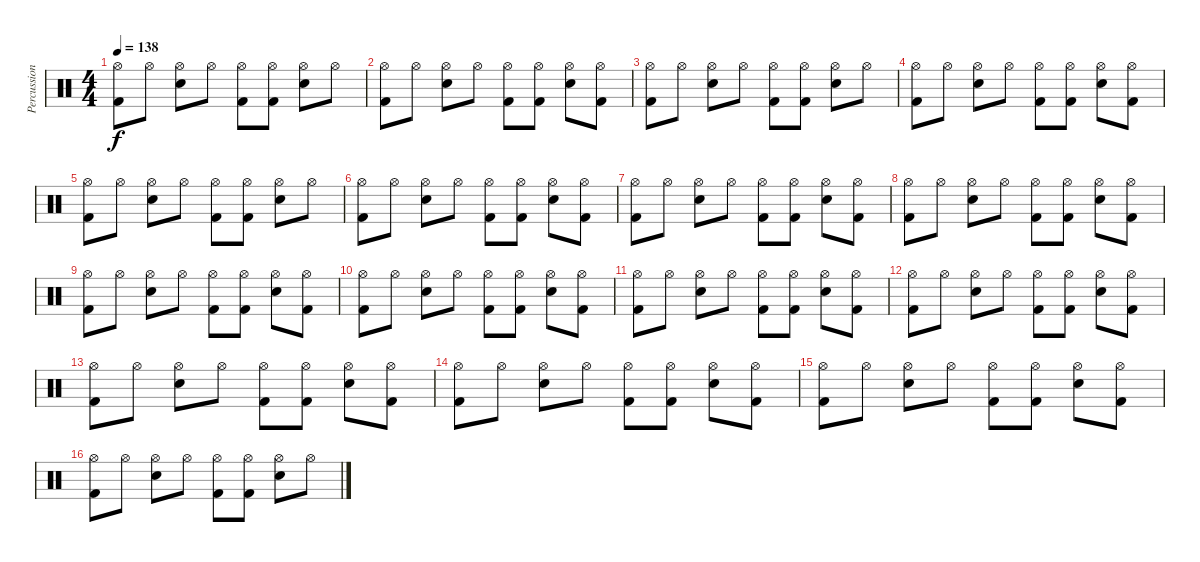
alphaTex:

\track ("Percussion" "Percussion") {instrument percussion}
\staff {score}
\articulation defaults
\ts (4 4)
\tempo 138
\clef neutral
\ks c
("Hi-Hat (open)" "Kick (hit) 2").8{dy f} "Hi-Hat (open)".8 ("Hi-Hat (open)" "Snare (hit) 2").8 "Hi-Hat (open)".8 ("Hi-Hat (open)" "Kick (hit) 2").8 ("Hi-Hat (open)" "Kick (hit) 2").8 ("Hi-Hat (open)" "Snare (hit) 2").8 "Hi-Hat (open)".8 |
("Hi-Hat (open)" "Kick (hit) 2").8 "Hi-Hat (open)".8 ("Hi-Hat (open)" "Snare (hit) 2").8 "Hi-Hat (open)".8 ("Hi-Hat (open)" "Kick (hit) 2").8 ("Hi-Hat (open)" "Kick (hit) 2").8 ("Hi-Hat (open)" "Snare (hit) 2").8 ("Hi-Hat (open)" "Kick (hit) 2").8 |
("Hi-Hat (open)" "Kick (hit) 2").8 "Hi-Hat (open)".8 ("Hi-Hat (open)" "Snare (hit) 2").8 "Hi-Hat (open)".8 ("Hi-Hat (open)" "Kick (hit) 2").8 ("Hi-Hat (open)" "Kick (hit) 2").8 ("Hi-Hat (open)" "Snare (hit) 2").8 "Hi-Hat (open)".8 |
("Hi-Hat (open)" "Kick (hit) 2").8 "Hi-Hat (open)".8 ("Hi-Hat (open)" "Snare (hit) 2").8 "Hi-Hat (open)".8 ("Hi-Hat (open)" "Kick (hit) 2").8 ("Hi-Hat (open)" "Kick (hit) 2").8 ("Hi-Hat (open)" "Snare (hit) 2").8 ("Hi-Hat (open)" "Kick (hit) 2").8 |
("Hi-Hat (open)" "Kick (hit) 2").8 "Hi-Hat (open)".8 ("Hi-Hat (open)" "Snare (hit) 2").8 "Hi-Hat (open)".8 ("Hi-Hat (open)" "Kick (hit) 2").8 ("Hi-Hat (open)" "Kick (hit) 2").8 ("Hi-Hat (open)" "Snare (hit) 2").8 "Hi-Hat (open)".8 |
("Hi-Hat (open)" "Kick (hit) 2").8 "Hi-Hat (open)".8 ("Hi-Hat (open)" "Snare (hit) 2").8 "Hi-Hat (open)".8 ("Hi-Hat (open)" "Kick (hit) 2").8 ("Hi-Hat (open)" "Kick (hit) 2").8 ("Hi-Hat (open)" "Snare (hit) 2").8 ("Hi-Hat (open)" "Kick (hit) 2").8 |
("Hi-Hat (open)" "Kick (hit) 2").8 "Hi-Hat (open)".8 ("Hi-Hat (open)" "Snare (hit) 2").8 "Hi-Hat (open)".8 ("Hi-Hat (open)" "Kick (hit) 2").8 ("Hi-Hat (open)" "Kick (hit) 2").8 ("Hi-Hat (open)" "Snare (hit) 2").8 ("Hi-Hat (open)" "Kick (hit) 2").8 |
("Hi-Hat (open)" "Kick (hit) 2").8 "Hi-Hat (open)".8 ("Hi-Hat (open)" "Snare (hit) 2").8 "Hi-Hat (open)".8 ("Hi-Hat (open)" "Kick (hit) 2").8 ("Hi-Hat (open)" "Kick (hit) 2").8 ("Hi-Hat (open)" "Snare (hit) 2").8 ("Hi-Hat (open)" "Kick (hit) 2").8 |
("Hi-Hat (open)" "Kick (hit) 2").8 "Hi-Hat (open)".8 ("Hi-Hat (open)" "Snare (hit) 2").8 "Hi-Hat (open)".8 ("Hi-Hat (open)" "Kick (hit) 2").8 ("Hi-Hat (open)" "Kick (hit) 2").8 ("Hi-Hat (open)" "Snare (hit) 2").8 ("Hi-Hat (open)" "Kick (hit) 2").8 |
("Hi-Hat (open)" "Kick (hit) 2").8 "Hi-Hat (open)".8 ("Hi-Hat (open)" "Snare (hit) 2").8 "Hi-Hat (open)".8 ("Hi-Hat (open)" "Kick (hit) 2").8 ("Hi-Hat (open)" "Kick (hit) 2").8 ("Hi-Hat (open)" "Snare (hit) 2").8 ("Hi-Hat (open)" "Kick (hit) 2").8 |
("Hi-Hat (open)" "Kick (hit) 2").8 "Hi-Hat (open)".8 ("Hi-Hat (open)" "Snare (hit) 2").8 "Hi-Hat (open)".8 ("Hi-Hat (open)" "Kick (hit) 2").8 ("Hi-Hat (open)" "Kick (hit) 2").8 ("Hi-Hat (open)" "Snare (hit) 2").8 ("Hi-Hat (open)" "Kick (hit) 2").8 |
("Hi-Hat (open)" "Kick (hit) 2").8 "Hi-Hat (open)".8 ("Hi-Hat (open)" "Snare (hit) 2").8 "Hi-Hat (open)".8 ("Hi-Hat (open)" "Kick (hit) 2").8 ("Hi-Hat (open)" "Kick (hit) 2").8 ("Hi-Hat (open)" "Snare (hit) 2").8 ("Hi-Hat (open)" "Kick (hit) 2").8 |
("Hi-Hat (open)" "Kick (hit) 2").8 "Hi-Hat (open)".8 ("Hi-Hat (open)" "Snare (hit) 2").8 "Hi-Hat (open)".8 ("Hi-Hat (open)" "Kick (hit) 2").8 ("Hi-Hat (open)" "Kick (hit) 2").8 ("Hi-Hat (open)" "Snare (hit) 2").8 ("Hi-Hat (open)" "Kick (hit) 2").8 |
("Hi-Hat (open)" "Kick (hit) 2").8 "Hi-Hat (open)".8 ("Hi-Hat (open)" "Snare (hit) 2").8 "Hi-Hat (open)".8 ("Hi-Hat (open)" "Kick (hit) 2").8 ("Hi-Hat (open)" "Kick (hit) 2").8 ("Hi-Hat (open)" "Snare (hit) 2").8 ("Hi-Hat (open)" "Kick (hit) 2").8 |
("Hi-Hat (open)" "Kick (hit) 2").8 "Hi-Hat (open)".8 ("Hi-Hat (open)" "Snare (hit) 2").8 "Hi-Hat (open)".8 ("Hi-Hat (open)" "Kick (hit) 2").8 ("Hi-Hat (open)" "Kick (hit) 2").8 ("Hi-Hat (open)" "Snare (hit) 2").8 ("Hi-Hat (open)" "Kick (hit) 2").8 |
("Hi-Hat (open)" "Kick (hit) 2").8 "Hi-Hat (open)".8 ("Hi-Hat (open)" "Snare (hit) 2").8 "Hi-Hat (open)".8 ("Hi-Hat (open)" "Kick (hit) 2").8 ("Hi-Hat (open)" "Kick (hit) 2").8 ("Hi-Hat (open)" "Snare (hit) 2").8 "Hi-Hat (open)".8
